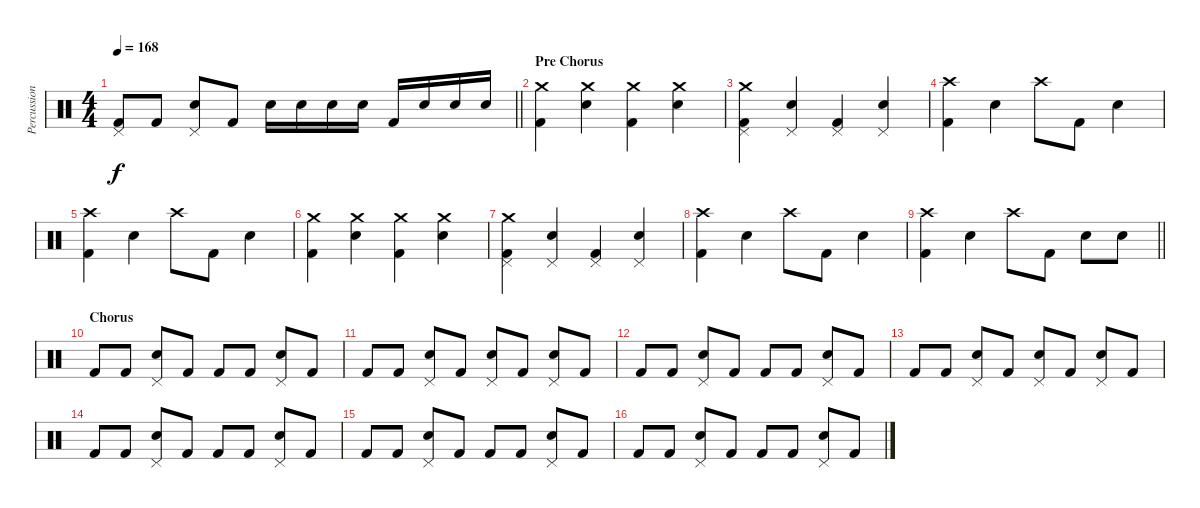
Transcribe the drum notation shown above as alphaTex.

\track ("Percussion" "Percussion") {instrument percussion}
\staff {score}
\articulation defaults
\ts (4 4)
\tempo 168
\clef neutral
\barLineRight lightlight
\ks c
("Pedal Hi-Hat (hit)" "Kick (hit) 2").8{dy f} "Kick (hit) 2".8 ("Pedal Hi-Hat (hit)" "Electric Snare (hit)").8 "Kick (hit) 2".8 "Electric Snare (hit)".16 "Electric Snare (hit)".16 "Electric Snare (hit)".16 "Electric Snare (hit)".16 "Kick (hit) 2".16 "Electric Snare (hit)".16 "Electric Snare (hit)".16 "Electric Snare (hit)".16 |
\section ("" "Pre Chorus")
("Crash medium (hit)" "Kick (hit) 2").4 ("Crash medium (hit)" "Electric Snare (hit)").4 ("Crash medium (hit)" "Kick (hit) 2").4 ("Crash medium (hit)" "Electric Snare (hit)").4 |
("Pedal Hi-Hat (hit)" "Crash medium (hit)" "Kick (hit) 2").4 ("Pedal Hi-Hat (hit)" "Electric Snare (hit)").4 ("Pedal Hi-Hat (hit)" "Kick (hit) 2").4 ("Pedal Hi-Hat (hit)" "Electric Snare (hit)").4 |
("Crash high (hit)" "Kick (hit) 2").4 "Electric Snare (hit)".4 "Crash high (hit)".8 "Kick (hit) 2".8 "Electric Snare (hit)".4 |
("Crash high (hit)" "Kick (hit) 2").4 "Electric Snare (hit)".4 "Crash high (hit)".8 "Kick (hit) 2".8 "Electric Snare (hit)".4 |
("Crash medium (hit)" "Kick (hit) 2").4 ("Crash medium (hit)" "Electric Snare (hit)").4 ("Crash medium (hit)" "Kick (hit) 2").4 ("Crash medium (hit)" "Electric Snare (hit)").4 |
("Pedal Hi-Hat (hit)" "Crash medium (hit)" "Kick (hit) 2").4 ("Pedal Hi-Hat (hit)" "Electric Snare (hit)").4 ("Pedal Hi-Hat (hit)" "Kick (hit) 2").4 ("Pedal Hi-Hat (hit)" "Electric Snare (hit)").4 |
("Crash high (hit)" "Kick (hit) 2").4 "Electric Snare (hit)".4 "Crash high (hit)".8 "Kick (hit) 2".8 "Electric Snare (hit)".4 |
\barLineRight lightlight
("Crash high (hit)" "Kick (hit) 2").4 "Electric Snare (hit)".4 "Crash high (hit)".8 "Kick (hit) 2".8 "Electric Snare (hit)".8 "Electric Snare (hit)".8 |
\section ("" "Chorus")
"Kick (hit) 2".8 "Kick (hit) 2".8 ("Pedal Hi-Hat (hit)" "Electric Snare (hit)").8 "Kick (hit) 2".8 "Kick (hit) 2".8 "Kick (hit) 2".8 ("Pedal Hi-Hat (hit)" "Electric Snare (hit)").8 "Kick (hit) 2".8 |
"Kick (hit) 2".8 "Kick (hit) 2".8 ("Pedal Hi-Hat (hit)" "Electric Snare (hit)").8 "Kick (hit) 2".8 ("Pedal Hi-Hat (hit)" "Electric Snare (hit)").8 "Kick (hit) 2".8 ("Pedal Hi-Hat (hit)" "Electric Snare (hit)").8 "Kick (hit) 2".8 |
"Kick (hit) 2".8 "Kick (hit) 2".8 ("Pedal Hi-Hat (hit)" "Electric Snare (hit)").8 "Kick (hit) 2".8 "Kick (hit) 2".8 "Kick (hit) 2".8 ("Pedal Hi-Hat (hit)" "Electric Snare (hit)").8 "Kick (hit) 2".8 |
"Kick (hit) 2".8 "Kick (hit) 2".8 ("Pedal Hi-Hat (hit)" "Electric Snare (hit)").8 "Kick (hit) 2".8 ("Pedal Hi-Hat (hit)" "Electric Snare (hit)").8 "Kick (hit) 2".8 ("Pedal Hi-Hat (hit)" "Electric Snare (hit)").8 "Kick (hit) 2".8 |
"Kick (hit) 2".8 "Kick (hit) 2".8 ("Pedal Hi-Hat (hit)" "Electric Snare (hit)").8 "Kick (hit) 2".8 "Kick (hit) 2".8 "Kick (hit) 2".8 ("Pedal Hi-Hat (hit)" "Electric Snare (hit)").8 "Kick (hit) 2".8 |
"Kick (hit) 2".8 "Kick (hit) 2".8 ("Pedal Hi-Hat (hit)" "Electric Snare (hit)").8 "Kick (hit) 2".8 "Kick (hit) 2".8 "Kick (hit) 2".8 ("Pedal Hi-Hat (hit)" "Electric Snare (hit)").8 "Kick (hit) 2".8 |
"Kick (hit) 2".8 "Kick (hit) 2".8 ("Pedal Hi-Hat (hit)" "Electric Snare (hit)").8 "Kick (hit) 2".8 "Kick (hit) 2".8 "Kick (hit) 2".8 ("Pedal Hi-Hat (hit)" "Electric Snare (hit)").8 "Kick (hit) 2".8
